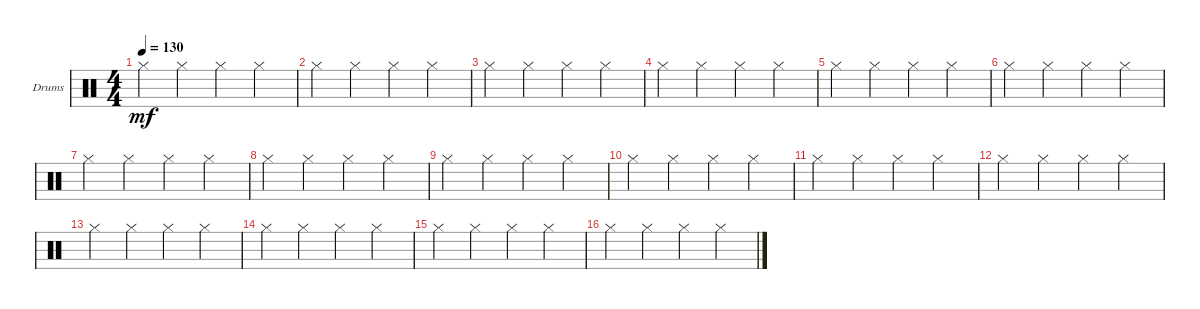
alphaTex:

\defaultSystemsLayout 4
\bracketExtendMode nobrackets
\firstSystemTrackNameOrientation horizontal
\otherSystemsTrackNameOrientation horizontal
\track ("Drumkit" "Drums") {instrument percussion}
\staff {score}
\articulation defaults
\ts (4 4)
\tempo 130
\clef neutral
\scale
0.472222
\ks c "Hi-Hat (closed)".4{dy mf} "Hi-Hat (closed)".4 "Hi-Hat (closed)".4 "Hi-Hat (closed)".4
|
\scale
0.263889 "Hi-Hat (closed)".4 "Hi-Hat (closed)".4 "Hi-Hat (closed)".4 "Hi-Hat (closed)".4 |
\scale
0.263889 "Hi-Hat (closed)".4 "Hi-Hat (closed)".4 "Hi-Hat (closed)".4 "Hi-Hat (closed)".4 |
\scale
0.333333 "Hi-Hat (closed)".4 "Hi-Hat (closed)".4 "Hi-Hat (closed)".4 "Hi-Hat (closed)".4 |
\scale
0.333333 "Hi-Hat (closed)".4 "Hi-Hat (closed)".4 "Hi-Hat (closed)".4 "Hi-Hat (closed)".4 |
\scale
0.333333 "Hi-Hat (closed)".4 "Hi-Hat (closed)".4 "Hi-Hat (closed)".4 "Hi-Hat (closed)".4 |
\scale
0.333333 "Hi-Hat (closed)".4 "Hi-Hat (closed)".4 "Hi-Hat (closed)".4 "Hi-Hat (closed)".4 |
\scale
0.333333 "Hi-Hat (closed)".4 "Hi-Hat (closed)".4 "Hi-Hat (closed)".4 "Hi-Hat (closed)".4 |
\scale
0.333333 "Hi-Hat (closed)".4 "Hi-Hat (closed)".4 "Hi-Hat (closed)".4 "Hi-Hat (closed)".4 |
\scale
0.333333 "Hi-Hat (closed)".4 "Hi-Hat (closed)".4 "Hi-Hat (closed)".4 "Hi-Hat (closed)".4 |
\scale
0.333333 "Hi-Hat (closed)".4 "Hi-Hat (closed)".4 "Hi-Hat (closed)".4 "Hi-Hat (closed)".4 |
\scale
0.333333 "Hi-Hat (closed)".4 "Hi-Hat (closed)".4 "Hi-Hat (closed)".4 "Hi-Hat (closed)".4 |
\scale
0.333333 "Hi-Hat (closed)".4 "Hi-Hat (closed)".4 "Hi-Hat (closed)".4 "Hi-Hat (closed)".4 |
\scale
0.333333 "Hi-Hat (closed)".4 "Hi-Hat (closed)".4 "Hi-Hat (closed)".4 "Hi-Hat (closed)".4 |
\scale
0.333333 "Hi-Hat (closed)".4 "Hi-Hat (closed)".4 "Hi-Hat (closed)".4 "Hi-Hat (closed)".4 |
\scale
0.333333 "Hi-Hat (closed)".4 "Hi-Hat (closed)".4 "Hi-Hat (closed)".4 "Hi-Hat (closed)".4
